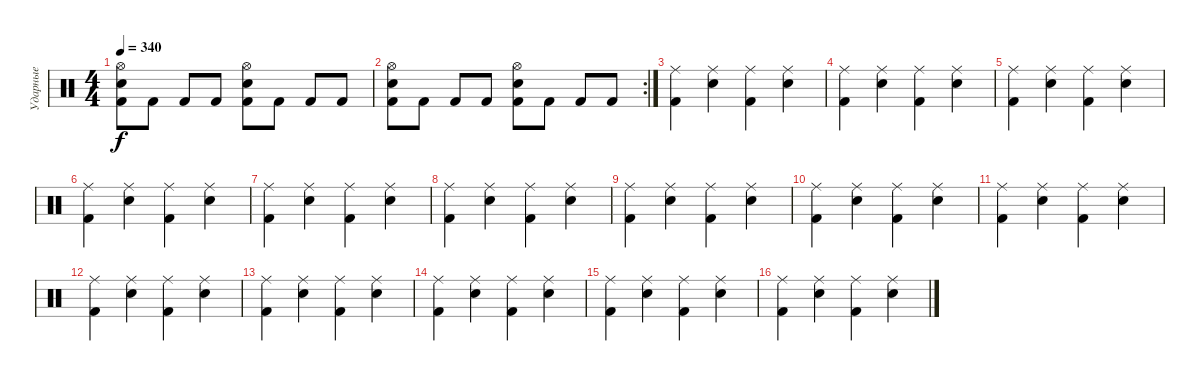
\track ("Ударные" "Ударные") {instrument percussion}
\staff {score}
\articulation defaults
\ts (4 4)
\tempo 340
\clef neutral
\ks c
("Kick (hit) 2" "Electric Snare (hit)" "Hi-Hat (open)").8{dy f} "Kick (hit) 2".8 "Kick (hit) 2".8 "Kick (hit) 2".8 ("Kick (hit) 2" "Electric Snare (hit)" "Hi-Hat (open)").8 "Kick (hit) 2".8 "Kick (hit) 2".8 "Kick (hit) 2".8 |
\rc 2
("Kick (hit) 2" "Electric Snare (hit)" "Hi-Hat (open)").8 "Kick (hit) 2".8 "Kick (hit) 2".8 "Kick (hit) 2".8 ("Kick (hit) 2" "Electric Snare (hit)" "Hi-Hat (open)").8 "Kick (hit) 2".8 "Kick (hit) 2".8 "Kick (hit) 2".8 |
("Kick (hit) 2" "Ride (middle)").4 ("Electric Snare (hit)" "Ride (middle)").4 ("Kick (hit) 2" "Ride (middle)").4 ("Electric Snare (hit)" "Ride (middle)").4 |
("Kick (hit) 2" "Ride (middle)").4 ("Electric Snare (hit)" "Ride (middle)").4 ("Kick (hit) 2" "Ride (middle)").4 ("Electric Snare (hit)" "Ride (middle)").4 |
("Kick (hit) 2" "Ride (middle)").4 ("Electric Snare (hit)" "Ride (middle)").4 ("Kick (hit) 2" "Ride (middle)").4 ("Electric Snare (hit)" "Ride (middle)").4 |
("Kick (hit) 2" "Ride (middle)").4 ("Electric Snare (hit)" "Ride (middle)").4 ("Kick (hit) 2" "Ride (middle)").4 ("Electric Snare (hit)" "Ride (middle)").4 |
("Kick (hit) 2" "Ride (middle)").4 ("Electric Snare (hit)" "Ride (middle)").4 ("Kick (hit) 2" "Ride (middle)").4 ("Electric Snare (hit)" "Ride (middle)").4 |
("Kick (hit) 2" "Ride (middle)").4 ("Electric Snare (hit)" "Ride (middle)").4 ("Kick (hit) 2" "Ride (middle)").4 ("Electric Snare (hit)" "Ride (middle)").4 |
("Kick (hit) 2" "Ride (middle)").4 ("Electric Snare (hit)" "Ride (middle)").4 ("Kick (hit) 2" "Ride (middle)").4 ("Electric Snare (hit)" "Ride (middle)").4 |
("Kick (hit) 2" "Ride (middle)").4 ("Electric Snare (hit)" "Ride (middle)").4 ("Kick (hit) 2" "Ride (middle)").4 ("Electric Snare (hit)" "Ride (middle)").4 |
("Kick (hit) 2" "Ride (middle)").4 ("Electric Snare (hit)" "Ride (middle)").4 ("Kick (hit) 2" "Ride (middle)").4 ("Electric Snare (hit)" "Ride (middle)").4 |
("Kick (hit) 2" "Ride (middle)").4 ("Electric Snare (hit)" "Ride (middle)").4 ("Kick (hit) 2" "Ride (middle)").4 ("Electric Snare (hit)" "Ride (middle)").4 |
("Kick (hit) 2" "Ride (middle)").4 ("Electric Snare (hit)" "Ride (middle)").4 ("Kick (hit) 2" "Ride (middle)").4 ("Electric Snare (hit)" "Ride (middle)").4 |
("Kick (hit) 2" "Ride (middle)").4 ("Electric Snare (hit)" "Ride (middle)").4 ("Kick (hit) 2" "Ride (middle)").4 ("Electric Snare (hit)" "Ride (middle)").4 |
("Kick (hit) 2" "Ride (middle)").4 ("Electric Snare (hit)" "Ride (middle)").4 ("Kick (hit) 2" "Ride (middle)").4 ("Electric Snare (hit)" "Ride (middle)").4 |
("Kick (hit) 2" "Ride (middle)").4 ("Electric Snare (hit)" "Ride (middle)").4 ("Kick (hit) 2" "Ride (middle)").4 ("Electric Snare (hit)" "Ride (middle)").4
